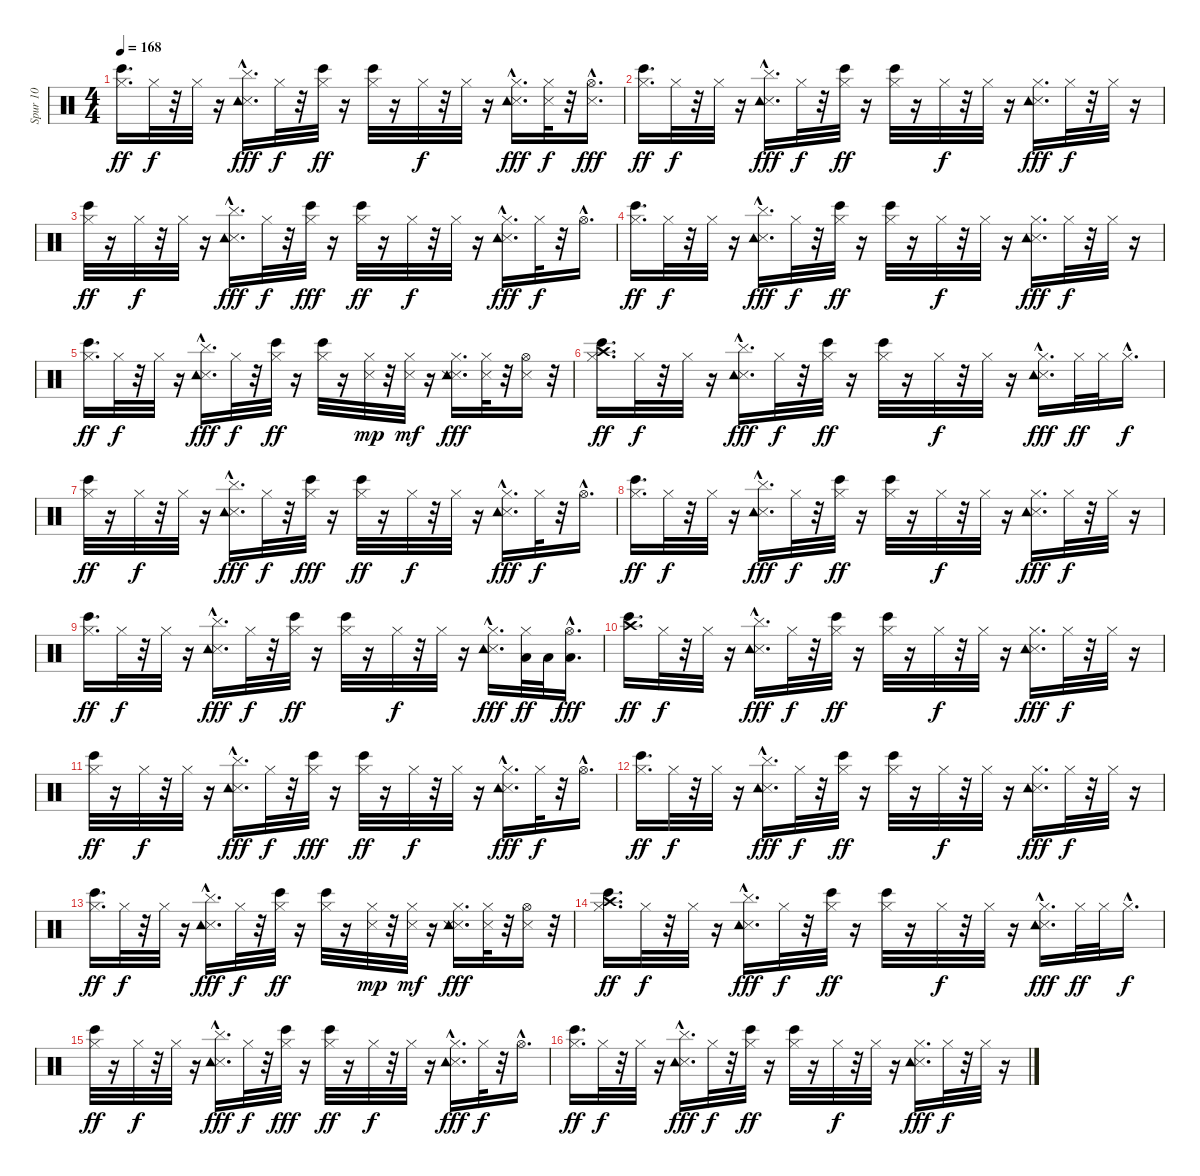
\track ("Spur 10" "Spur 10") {instrument percussion}
\staff {score}
\articulation defaults
\ts (4 4)
\tempo 168
\clef neutral
\ks c
("Hi-Hat (closed)" "Bongo High (hit)").16{d dy ff} "Hi-Hat (closed)".32{dy f} r.32 "Hi-Hat (closed)".32 r.16 ("Cymbal (hit)"{hac} "Metronome (hit)" "Tambourine (hit)").16{d dy fff} "Hi-Hat (closed)".32{dy f} r.32 ("Hi-Hat (closed)" "Bongo High (hit)").32{dy ff} r.16 ("Hi-Hat (closed)" "Bongo High (hit)").32 r.16 "Hi-Hat (closed)".32{dy f} r.32 "Hi-Hat (closed)".32 r.16 ("Hi-Hat (closed)" "Metronome (hit)"{hac} "Tambourine (hit)").16{d dy fff} ("Metronome (hit)" "Hi-Hat (closed)").32{dy f} r.32 ("Metronome (hit)"{hac} "Hi-Hat (open)"{hac}).16{d dy fff} |
("Hi-Hat (closed)" "Bongo High (hit)").16{d dy ff} "Hi-Hat (closed)".32{dy f} r.32 "Hi-Hat (closed)".32 r.16 ("Cymbal (hit)"{hac} "Metronome (hit)" "Tambourine (hit)").16{d dy fff} "Hi-Hat (closed)".32{dy f} r.32 ("Hi-Hat (closed)" "Bongo High (hit)").32{dy ff} r.16 ("Hi-Hat (closed)" "Bongo High (hit)").32 r.16 "Hi-Hat (closed)".32{dy f} r.32 "Hi-Hat (closed)".32 r.16 ("Hi-Hat (closed)" "Metronome (hit)" "Tambourine (hit)").16{d dy fff} "Hi-Hat (closed)".32{dy f} r.32 "Hi-Hat (closed)".32 r.16 |
("Hi-Hat (closed)" "Bongo High (hit)").32{dy ff} r.16 "Hi-Hat (closed)".32{dy f} r.32 "Hi-Hat (closed)".32 r.16 ("Cymbal (hit)"{hac} "Metronome (hit)" "Tambourine (hit)").16{d dy fff} "Hi-Hat (closed)".32{dy f} r.32 ("Hi-Hat (closed)" "Bongo High (hit)").32{dy fff} r.16 ("Hi-Hat (closed)" "Bongo High (hit)").32{dy ff} r.16 "Hi-Hat (closed)".32{dy f} r.32 "Hi-Hat (closed)".32 r.16 ("Hi-Hat (closed)" "Metronome (hit)"{hac} "Tambourine (hit)").16{d dy fff} "Hi-Hat (closed)".32{dy f} r.32 "Hi-Hat (open)"{hac}.16{d} |
("Hi-Hat (closed)" "Bongo High (hit)").16{d dy ff} "Hi-Hat (closed)".32{dy f} r.32 "Hi-Hat (closed)".32 r.16 ("Cymbal (hit)"{hac} "Metronome (hit)" "Tambourine (hit)").16{d dy fff} "Hi-Hat (closed)".32{dy f} r.32 ("Hi-Hat (closed)" "Bongo High (hit)").32{dy ff} r.16 ("Hi-Hat (closed)" "Bongo High (hit)").32 r.16 "Hi-Hat (closed)".32{dy f} r.32 "Hi-Hat (closed)".32 r.16 ("Hi-Hat (closed)" "Metronome (hit)" "Tambourine (hit)").16{d dy fff} "Hi-Hat (closed)".32{dy f} r.32 "Hi-Hat (closed)".32 r.16 |
("Hi-Hat (closed)" "Bongo High (hit)").16{d dy ff} "Hi-Hat (closed)".32{dy f} r.32 "Hi-Hat (closed)".32 r.16 ("Cymbal (hit)"{hac} "Metronome (hit)" "Tambourine (hit)").16{d dy fff} "Hi-Hat (closed)".32{dy f} r.32 ("Hi-Hat (closed)" "Bongo High (hit)").32{dy ff} r.16 ("Hi-Hat (closed)" "Bongo High (hit)").32 r.16 ("Metronome (hit)" "Hi-Hat (closed)").32{dy mp} r.32 ("Metronome (hit)" "Hi-Hat (closed)").32{dy mf} r.16 ("Metronome (hit)" "Hi-Hat (closed)" "Metronome (hit)" "Tambourine (hit)").16{d dy fff} ("Metronome (hit)" "Hi-Hat (closed)").32 r.32 ("Metronome (hit)" "Hi-Hat (open)").16 r.32 |
("Crash high (hit)" "Hi-Hat (closed)" "Bongo High (hit)").16{d dy ff} "Hi-Hat (closed)".32{dy f} r.32 "Hi-Hat (closed)".32 r.16 ("Cymbal (hit)"{hac} "Metronome (hit)" "Tambourine (hit)").16{d dy fff} "Hi-Hat (closed)".32{dy f} r.32 ("Hi-Hat (closed)" "Bongo High (hit)").32{dy ff} r.16 ("Hi-Hat (closed)" "Bongo High (hit)").32 r.16 "Hi-Hat (closed)".32{dy f} r.32 "Hi-Hat (closed)".32 r.16 ("Hi-Hat (closed)"{hac} "Metronome (hit)" "Tambourine (hit)").16{d dy fff} "Hi-Hat (closed)".32{dy ff} "Hi-Hat (closed)".32 "Hi-Hat (closed)"{hac}.16{d dy f} |
("Hi-Hat (closed)" "Bongo High (hit)").32{dy ff} r.16 "Hi-Hat (closed)".32{dy f} r.32 "Hi-Hat (closed)".32 r.16 ("Cymbal (hit)"{hac} "Metronome (hit)" "Tambourine (hit)").16{d dy fff} "Hi-Hat (closed)".32{dy f} r.32 ("Hi-Hat (closed)" "Bongo High (hit)").32{dy fff} r.16 ("Hi-Hat (closed)" "Bongo High (hit)").32{dy ff} r.16 "Hi-Hat (closed)".32{dy f} r.32 "Hi-Hat (closed)".32 r.16 ("Hi-Hat (closed)" "Metronome (hit)"{hac} "Tambourine (hit)").16{d dy fff} "Hi-Hat (closed)".32{dy f} r.32 "Hi-Hat (open)"{hac}.16{d} |
("Hi-Hat (closed)" "Bongo High (hit)").16{d dy ff} "Hi-Hat (closed)".32{dy f} r.32 "Hi-Hat (closed)".32 r.16 ("Cymbal (hit)"{hac} "Metronome (hit)" "Tambourine (hit)").16{d dy fff} "Hi-Hat (closed)".32{dy f} r.32 ("Hi-Hat (closed)" "Bongo High (hit)").32{dy ff} r.16 ("Hi-Hat (closed)" "Bongo High (hit)").32 r.16 "Hi-Hat (closed)".32{dy f} r.32 "Hi-Hat (closed)".32 r.16 ("Hi-Hat (closed)" "Metronome (hit)" "Tambourine (hit)").16{d dy fff} "Hi-Hat (closed)".32{dy f} r.32 "Hi-Hat (closed)".32 r.16 |
("Hi-Hat (closed)" "Bongo High (hit)").16{d dy ff} "Hi-Hat (closed)".32{dy f} r.32 "Hi-Hat (closed)".32 r.16 ("Cymbal (hit)"{hac} "Metronome (hit)" "Tambourine (hit)").16{d dy fff} "Hi-Hat (closed)".32{dy f} r.32 ("Hi-Hat (closed)" "Bongo High (hit)").32{dy ff} r.16 ("Hi-Hat (closed)" "Bongo High (hit)").32 r.16 "Hi-Hat (closed)".32{dy f} r.32 "Hi-Hat (closed)".32 r.16 ("Hi-Hat (closed)" "Metronome (hit)"{hac} "Tambourine (hit)").16{d dy fff} ("Low Tom (hit)" "Hi-Hat (closed)").32{dy ff} "Low Tom (hit)".32 ("Low Tom (hit)"{hac} "Hi-Hat (open)"{hac}).16{d dy fff} |
("Crash high (hit)" "Bongo High (hit)").16{d dy ff} "Hi-Hat (closed)".32{dy f} r.32 "Hi-Hat (closed)".32 r.16 ("Cymbal (hit)"{hac} "Metronome (hit)" "Tambourine (hit)").16{d dy fff} "Hi-Hat (closed)".32{dy f} r.32 ("Hi-Hat (closed)" "Bongo High (hit)").32{dy ff} r.16 ("Hi-Hat (closed)" "Bongo High (hit)").32 r.16 "Hi-Hat (closed)".32{dy f} r.32 "Hi-Hat (closed)".32 r.16 ("Hi-Hat (closed)" "Metronome (hit)" "Tambourine (hit)").16{d dy fff} "Hi-Hat (closed)".32{dy f} r.32 "Hi-Hat (closed)".32 r.16 |
("Hi-Hat (closed)" "Bongo High (hit)").32{dy ff} r.16 "Hi-Hat (closed)".32{dy f} r.32 "Hi-Hat (closed)".32 r.16 ("Cymbal (hit)"{hac} "Metronome (hit)" "Tambourine (hit)").16{d dy fff} "Hi-Hat (closed)".32{dy f} r.32 ("Hi-Hat (closed)" "Bongo High (hit)").32{dy fff} r.16 ("Hi-Hat (closed)" "Bongo High (hit)").32{dy ff} r.16 "Hi-Hat (closed)".32{dy f} r.32 "Hi-Hat (closed)".32 r.16 ("Hi-Hat (closed)" "Metronome (hit)"{hac} "Tambourine (hit)").16{d dy fff} "Hi-Hat (closed)".32{dy f} r.32 "Hi-Hat (open)"{hac}.16{d} |
("Hi-Hat (closed)" "Bongo High (hit)").16{d dy ff} "Hi-Hat (closed)".32{dy f} r.32 "Hi-Hat (closed)".32 r.16 ("Cymbal (hit)"{hac} "Metronome (hit)" "Tambourine (hit)").16{d dy fff} "Hi-Hat (closed)".32{dy f} r.32 ("Hi-Hat (closed)" "Bongo High (hit)").32{dy ff} r.16 ("Hi-Hat (closed)" "Bongo High (hit)").32 r.16 "Hi-Hat (closed)".32{dy f} r.32 "Hi-Hat (closed)".32 r.16 ("Hi-Hat (closed)" "Metronome (hit)" "Tambourine (hit)").16{d dy fff} "Hi-Hat (closed)".32{dy f} r.32 "Hi-Hat (closed)".32 r.16 |
("Hi-Hat (closed)" "Bongo High (hit)").16{d dy ff} "Hi-Hat (closed)".32{dy f} r.32 "Hi-Hat (closed)".32 r.16 ("Cymbal (hit)"{hac} "Metronome (hit)" "Tambourine (hit)").16{d dy fff} "Hi-Hat (closed)".32{dy f} r.32 ("Hi-Hat (closed)" "Bongo High (hit)").32{dy ff} r.16 ("Hi-Hat (closed)" "Bongo High (hit)").32 r.16 ("Metronome (hit)" "Hi-Hat (closed)").32{dy mp} r.32 ("Metronome (hit)" "Hi-Hat (closed)").32{dy mf} r.16 ("Metronome (hit)" "Hi-Hat (closed)" "Metronome (hit)" "Tambourine (hit)").16{d dy fff} ("Metronome (hit)" "Hi-Hat (closed)").32 r.32 ("Metronome (hit)" "Hi-Hat (open)").16 r.32 |
("Crash high (hit)" "Hi-Hat (closed)" "Bongo High (hit)").16{d dy ff} "Hi-Hat (closed)".32{dy f} r.32 "Hi-Hat (closed)".32 r.16 ("Cymbal (hit)"{hac} "Metronome (hit)" "Tambourine (hit)").16{d dy fff} "Hi-Hat (closed)".32{dy f} r.32 ("Hi-Hat (closed)" "Bongo High (hit)").32{dy ff} r.16 ("Hi-Hat (closed)" "Bongo High (hit)").32 r.16 "Hi-Hat (closed)".32{dy f} r.32 "Hi-Hat (closed)".32 r.16 ("Hi-Hat (closed)"{hac} "Metronome (hit)" "Tambourine (hit)").16{d dy fff} "Hi-Hat (closed)".32{dy ff} "Hi-Hat (closed)".32 "Hi-Hat (closed)"{hac}.16{d dy f} |
("Hi-Hat (closed)" "Bongo High (hit)").32{dy ff} r.16 "Hi-Hat (closed)".32{dy f} r.32 "Hi-Hat (closed)".32 r.16 ("Cymbal (hit)"{hac} "Metronome (hit)" "Tambourine (hit)").16{d dy fff} "Hi-Hat (closed)".32{dy f} r.32 ("Hi-Hat (closed)" "Bongo High (hit)").32{dy fff} r.16 ("Hi-Hat (closed)" "Bongo High (hit)").32{dy ff} r.16 "Hi-Hat (closed)".32{dy f} r.32 "Hi-Hat (closed)".32 r.16 ("Hi-Hat (closed)" "Metronome (hit)"{hac} "Tambourine (hit)").16{d dy fff} "Hi-Hat (closed)".32{dy f} r.32 "Hi-Hat (open)"{hac}.16{d} |
("Hi-Hat (closed)" "Bongo High (hit)").16{d dy ff} "Hi-Hat (closed)".32{dy f} r.32 "Hi-Hat (closed)".32 r.16 ("Cymbal (hit)"{hac} "Metronome (hit)" "Tambourine (hit)").16{d dy fff} "Hi-Hat (closed)".32{dy f} r.32 ("Hi-Hat (closed)" "Bongo High (hit)").32{dy ff} r.16 ("Hi-Hat (closed)" "Bongo High (hit)").32 r.16 "Hi-Hat (closed)".32{dy f} r.32 "Hi-Hat (closed)".32 r.16 ("Hi-Hat (closed)" "Metronome (hit)" "Tambourine (hit)").16{d dy fff} "Hi-Hat (closed)".32{dy f} r.32 "Hi-Hat (closed)".32 r.16
